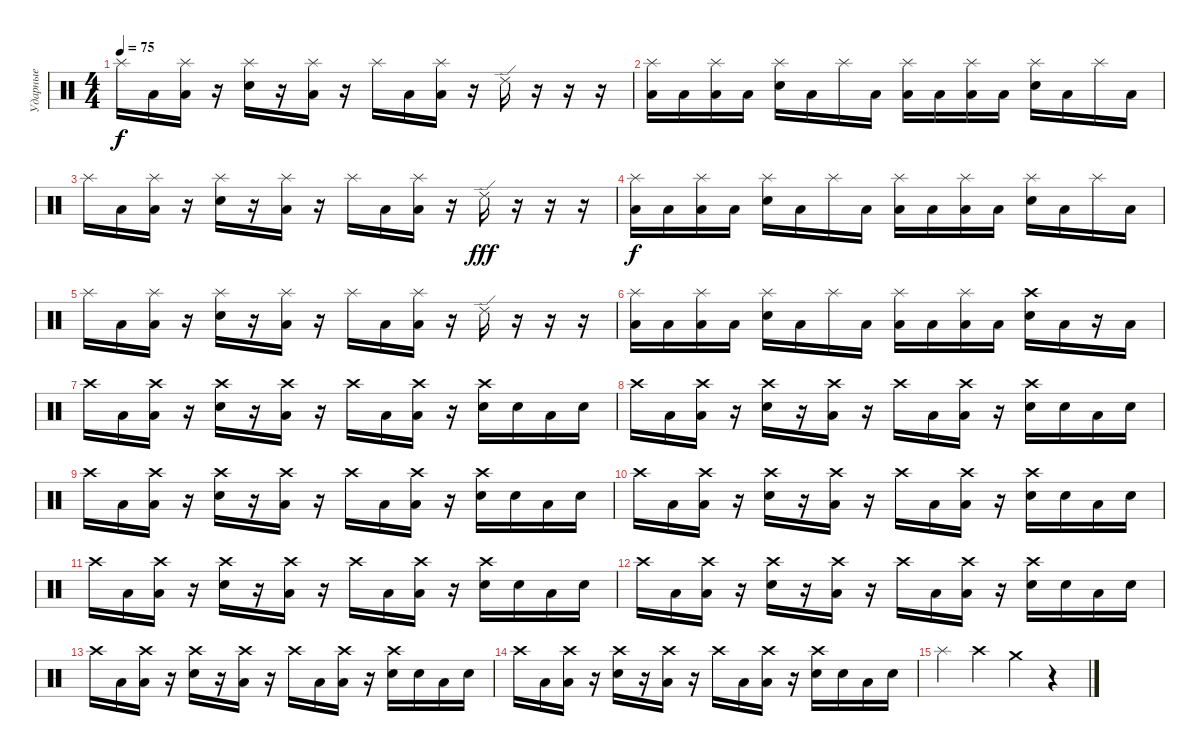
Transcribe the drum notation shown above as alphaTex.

\track ("Ударные" "Ударные") {instrument percussion}
\staff {score}
\articulation defaults
\ts (4 4)
\tempo 75
\clef neutral
\ks c "Splash (hit)".16{dy f} "Low Floor Tom (hit)".16
("Splash (hit)" "Low Floor Tom (hit)").16 r.16 ("Splash (hit)" "Electric Snare (hit)").16 r.16 ("Splash (hit)" "Low Floor Tom (hit)").16 r.16 "Splash (hit)".16 "Low Floor Tom (hit)".16 ("Splash (hit)" "Low Floor Tom (hit)").16 r.16 "Ride (edge) 2".16 r.16 r.16 r.16 |
("Splash (hit)" "Low Floor Tom (hit)").16 "Low Floor Tom (hit)".16 ("Splash (hit)" "Low Floor Tom (hit)").16 "Low Floor Tom (hit)".16 ("Splash (hit)" "Electric Snare (hit)").16 "Low Floor Tom (hit)".16 "Splash (hit)".16 "Low Floor Tom (hit)".16 ("Splash (hit)" "Low Floor Tom (hit)").16 "Low Floor Tom (hit)".16 ("Splash (hit)" "Low Floor Tom (hit)").16 "Low Floor Tom (hit)".16 ("Splash (hit)" "Electric Snare (hit)").16 "Low Floor Tom (hit)".16 "Splash (hit)".16 "Low Floor Tom (hit)".16 |
"Splash (hit)".16 "Low Floor Tom (hit)".16 ("Splash (hit)" "Low Floor Tom (hit)").16 r.16 ("Splash (hit)" "Electric Snare (hit)").16 r.16 ("Splash (hit)" "Low Floor Tom (hit)").16 r.16 "Splash (hit)".16 "Low Floor Tom (hit)".16 ("Splash (hit)" "Low Floor Tom (hit)").16 r.16 "Ride (edge) 2".16{dy fff} r.16 r.16 r.16 |
("Splash (hit)" "Low Floor Tom (hit)").16{dy f} "Low Floor Tom (hit)".16 ("Splash (hit)" "Low Floor Tom (hit)").16 "Low Floor Tom (hit)".16 ("Splash (hit)" "Electric Snare (hit)").16 "Low Floor Tom (hit)".16 "Splash (hit)".16 "Low Floor Tom (hit)".16 ("Splash (hit)" "Low Floor Tom (hit)").16 "Low Floor Tom (hit)".16 ("Splash (hit)" "Low Floor Tom (hit)").16 "Low Floor Tom (hit)".16 ("Splash (hit)" "Electric Snare (hit)").16 "Low Floor Tom (hit)".16 "Splash (hit)".16 "Low Floor Tom (hit)".16 |
"Splash (hit)".16 "Low Floor Tom (hit)".16 ("Splash (hit)" "Low Floor Tom (hit)").16 r.16 ("Splash (hit)" "Electric Snare (hit)").16 r.16 ("Splash (hit)" "Low Floor Tom (hit)").16 r.16 "Splash (hit)".16 "Low Floor Tom (hit)".16 ("Splash (hit)" "Low Floor Tom (hit)").16 r.16 "Ride (edge) 2".16 r.16 r.16 r.16 |
("Splash (hit)" "Low Floor Tom (hit)").16 "Low Floor Tom (hit)".16 ("Splash (hit)" "Low Floor Tom (hit)").16 "Low Floor Tom (hit)".16 ("Splash (hit)" "Electric Snare (hit)").16 "Low Floor Tom (hit)".16 "Splash (hit)".16 "Low Floor Tom (hit)".16 ("Splash (hit)" "Low Floor Tom (hit)").16 "Low Floor Tom (hit)".16 ("Splash (hit)" "Low Floor Tom (hit)").16 "Low Floor Tom (hit)".16 ("Crash high (hit)" "Electric Snare (hit)").16 "Low Floor Tom (hit)".16 r.16 "Low Floor Tom (hit)".16 |
"Crash high (hit)".16 "Low Floor Tom (hit)".16 ("Crash high (hit)" "Low Floor Tom (hit)").16 r.16 ("Crash high (hit)" "Electric Snare (hit)").16 r.16 ("Crash high (hit)" "Low Floor Tom (hit)").16 r.16 "Crash high (hit)".16 "Low Floor Tom (hit)".16 ("Crash high (hit)" "Low Floor Tom (hit)").16 r.16 ("Crash high (hit)" "Electric Snare (hit)").16 "Electric Snare (hit)".16 "Low Floor Tom (hit)".16 "Electric Snare (hit)".16 |
"Crash high (hit)".16 "Low Floor Tom (hit)".16 ("Crash high (hit)" "Low Floor Tom (hit)").16 r.16 ("Crash high (hit)" "Electric Snare (hit)").16 r.16 ("Crash high (hit)" "Low Floor Tom (hit)").16 r.16 "Crash high (hit)".16 "Low Floor Tom (hit)".16 ("Crash high (hit)" "Low Floor Tom (hit)").16 r.16 ("Crash high (hit)" "Electric Snare (hit)").16 "Electric Snare (hit)".16 "Low Floor Tom (hit)".16 "Electric Snare (hit)".16 |
"Crash high (hit)".16 "Low Floor Tom (hit)".16 ("Crash high (hit)" "Low Floor Tom (hit)").16 r.16 ("Crash high (hit)" "Electric Snare (hit)").16 r.16 ("Crash high (hit)" "Low Floor Tom (hit)").16 r.16 "Crash high (hit)".16 "Low Floor Tom (hit)".16 ("Crash high (hit)" "Low Floor Tom (hit)").16 r.16 ("Crash high (hit)" "Electric Snare (hit)").16 "Electric Snare (hit)".16 "Low Floor Tom (hit)".16 "Electric Snare (hit)".16 |
"Crash high (hit)".16 "Low Floor Tom (hit)".16 ("Crash high (hit)" "Low Floor Tom (hit)").16 r.16 ("Crash high (hit)" "Electric Snare (hit)").16 r.16 ("Crash high (hit)" "Low Floor Tom (hit)").16 r.16 "Crash high (hit)".16 "Low Floor Tom (hit)".16 ("Crash high (hit)" "Low Floor Tom (hit)").16 r.16 ("Crash high (hit)" "Electric Snare (hit)").16 "Electric Snare (hit)".16 "Low Floor Tom (hit)".16 "Electric Snare (hit)".16 |
"Crash high (hit)".16 "Low Floor Tom (hit)".16 ("Crash high (hit)" "Low Floor Tom (hit)").16 r.16 ("Crash high (hit)" "Electric Snare (hit)").16 r.16 ("Crash high (hit)" "Low Floor Tom (hit)").16 r.16 "Crash high (hit)".16 "Low Floor Tom (hit)".16 ("Crash high (hit)" "Low Floor Tom (hit)").16 r.16 ("Crash high (hit)" "Electric Snare (hit)").16 "Electric Snare (hit)".16 "Low Floor Tom (hit)".16 "Electric Snare (hit)".16 |
"Crash high (hit)".16 "Low Floor Tom (hit)".16 ("Crash high (hit)" "Low Floor Tom (hit)").16 r.16 ("Crash high (hit)" "Electric Snare (hit)").16 r.16 ("Crash high (hit)" "Low Floor Tom (hit)").16 r.16 "Crash high (hit)".16 "Low Floor Tom (hit)".16 ("Crash high (hit)" "Low Floor Tom (hit)").16 r.16 ("Crash high (hit)" "Electric Snare (hit)").16 "Electric Snare (hit)".16 "Low Floor Tom (hit)".16 "Electric Snare (hit)".16 |
"Crash high (hit)".16 "Low Floor Tom (hit)".16 ("Crash high (hit)" "Low Floor Tom (hit)").16 r.16 ("Crash high (hit)" "Electric Snare (hit)").16 r.16 ("Crash high (hit)" "Low Floor Tom (hit)").16 r.16 "Crash high (hit)".16 "Low Floor Tom (hit)".16 ("Crash high (hit)" "Low Floor Tom (hit)").16 r.16 ("Crash high (hit)" "Electric Snare (hit)").16 "Electric Snare (hit)".16 "Low Floor Tom (hit)".16 "Electric Snare (hit)".16 |
"Crash high (hit)".16 "Low Floor Tom (hit)".16 ("Crash high (hit)" "Low Floor Tom (hit)").16 r.16 ("Crash high (hit)" "Electric Snare (hit)").16 r.16 ("Crash high (hit)" "Low Floor Tom (hit)").16 r.16 "Crash high (hit)".16 "Low Floor Tom (hit)".16 ("Crash high (hit)" "Low Floor Tom (hit)").16 r.16 ("Crash high (hit)" "Electric Snare (hit)").16 "Electric Snare (hit)".16 "Low Floor Tom (hit)".16 "Electric Snare (hit)".16 |
"Splash (hit)".4 "Crash high (hit)".4 "Crash medium (hit)".4 r.4
